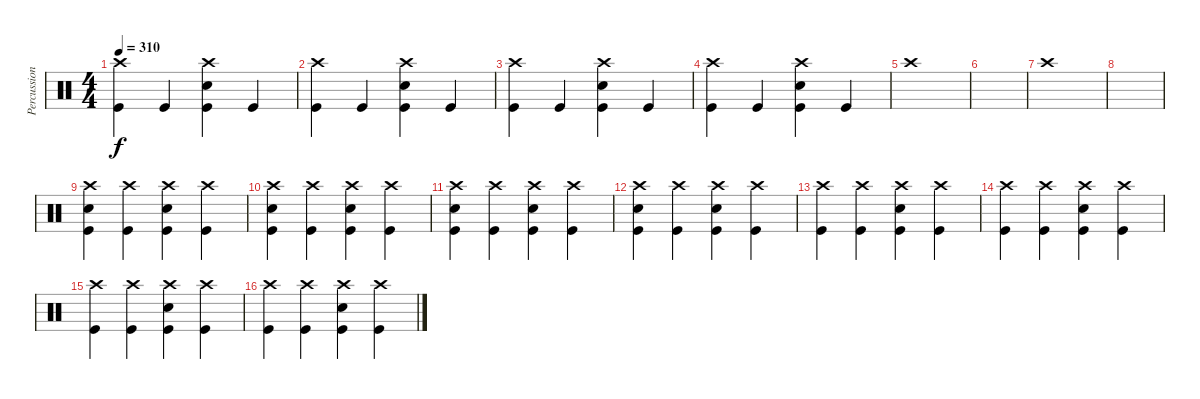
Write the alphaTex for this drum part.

\track ("Percussion" "Percussion") {instrument percussion}
\staff {score}
\articulation defaults
\ts (4 4)
\tempo 310
\clef neutral
\ks c
("Crash high (hit)" "Kick (hit)").4{dy f} "Kick (hit)".4 ("Crash high (hit)" "Electric Snare (hit)" "Kick (hit)").4 "Kick (hit)".4 |
("Crash high (hit)" "Kick (hit)").4 "Kick (hit)".4 ("Crash high (hit)" "Electric Snare (hit)" "Kick (hit)").4 "Kick (hit)".4 |
("Crash high (hit)" "Kick (hit)").4 "Kick (hit)".4 ("Crash high (hit)" "Electric Snare (hit)" "Kick (hit)").4 "Kick (hit)".4 |
("Crash high (hit)" "Kick (hit)").4 "Kick (hit)".4 ("Crash high (hit)" "Electric Snare (hit)" "Kick (hit)").4 "Kick (hit)".4 |
"Crash high (hit)".1 |
|
"Crash high (hit)".1 |
|
("Crash high (hit)" "Electric Snare (hit)" "Kick (hit)").4 ("Crash high (hit)" "Kick (hit)").4 ("Crash high (hit)" "Electric Snare (hit)" "Kick (hit)").4 ("Crash high (hit)" "Kick (hit)").4 |
("Crash high (hit)" "Electric Snare (hit)" "Kick (hit)").4 ("Crash high (hit)" "Kick (hit)").4 ("Crash high (hit)" "Electric Snare (hit)" "Kick (hit)").4 ("Crash high (hit)" "Kick (hit)").4 |
("Crash high (hit)" "Electric Snare (hit)" "Kick (hit)").4 ("Crash high (hit)" "Kick (hit)").4 ("Crash high (hit)" "Electric Snare (hit)" "Kick (hit)").4 ("Crash high (hit)" "Kick (hit)").4 |
("Crash high (hit)" "Electric Snare (hit)" "Kick (hit)").4 ("Crash high (hit)" "Kick (hit)").4 ("Crash high (hit)" "Electric Snare (hit)" "Kick (hit)").4 ("Crash high (hit)" "Kick (hit)").4 |
("Crash high (hit)" "Kick (hit)").4 ("Crash high (hit)" "Kick (hit)").4 ("Crash high (hit)" "Electric Snare (hit)" "Kick (hit)").4 ("Crash high (hit)" "Kick (hit)").4 |
("Crash high (hit)" "Kick (hit)").4 ("Crash high (hit)" "Kick (hit)").4 ("Crash high (hit)" "Electric Snare (hit)" "Kick (hit)").4 ("Crash high (hit)" "Kick (hit)").4 |
("Crash high (hit)" "Kick (hit)").4 ("Crash high (hit)" "Kick (hit)").4 ("Crash high (hit)" "Electric Snare (hit)" "Kick (hit)").4 ("Crash high (hit)" "Kick (hit)").4 |
("Crash high (hit)" "Kick (hit)").4 ("Crash high (hit)" "Kick (hit)").4 ("Crash high (hit)" "Electric Snare (hit)" "Kick (hit)").4 ("Crash high (hit)" "Kick (hit)").4
